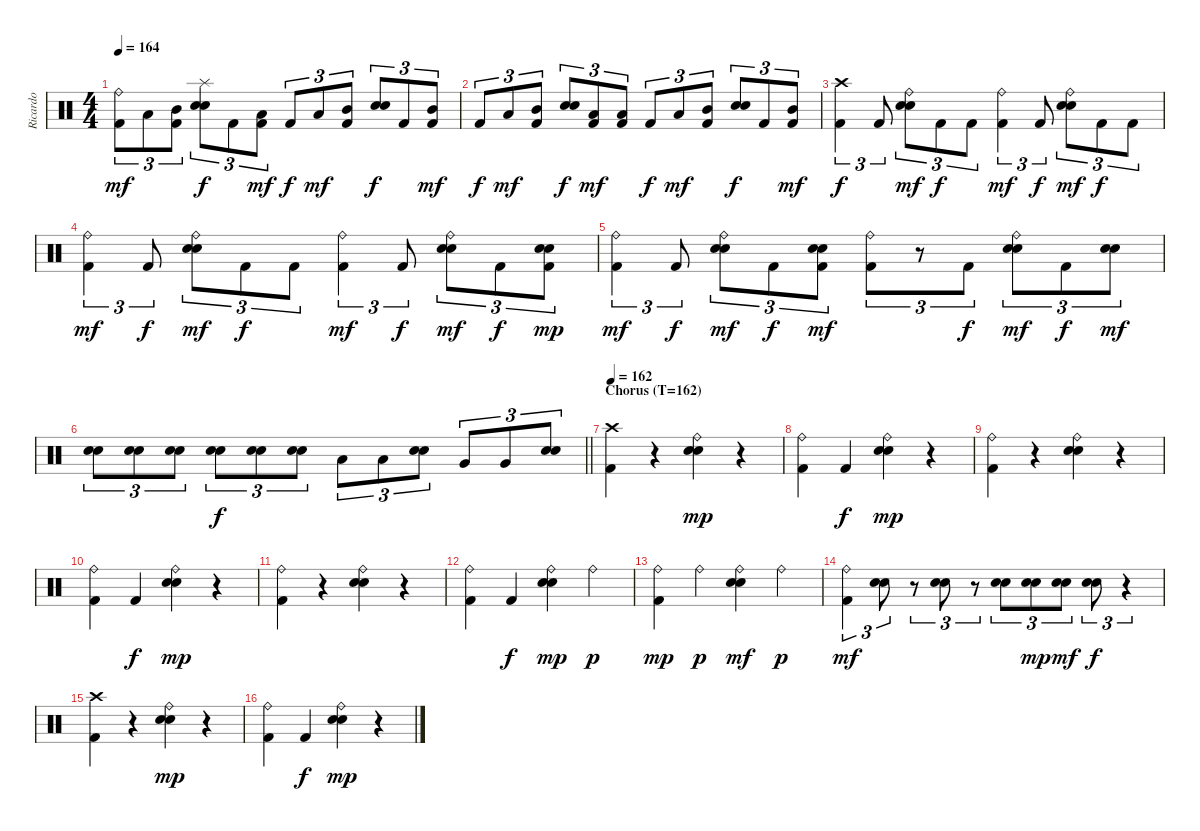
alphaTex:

\track ("Ricardo" "Ricardo") {instrument percussion}
\staff {score}
\articulation defaults
\ts (4 4)
\tempo 164
\clef neutral
\ks c
("Ride (bell)" "Kick (hit) 2").8{tu (3 2) dy mf} "Low Tom (hit)".8{tu (3 2)} ("Mid Tom (hit)" "Kick (hit) 2").8{tu (3 2)} ("Splash (hit)" "Electric Snare (hit)" "Snare (hit) 2").8{tu (3 2) dy f} "Kick (hit) 2".8{tu (3 2)} ("Low Tom (hit)" "Kick (hit) 2").8{tu (3 2) dy mf} "Kick (hit) 2".8{tu (3 2) dy f} "Low Tom (hit)".8{tu (3 2) dy mf} ("Mid Tom (hit)" "Kick (hit) 2").8{tu (3 2)} ("Electric Snare (hit)" "Snare (hit) 2").8{tu (3 2) dy f} "Kick (hit) 2".8{tu (3 2)} ("Mid Tom (hit)" "Kick (hit) 2").8{tu (3 2) dy mf} |
"Kick (hit) 2".8{tu (3 2) dy f} "Low Tom (hit)".8{tu (3 2) dy mf} ("Mid Tom (hit)" "Kick (hit) 2").8{tu (3 2)} ("Electric Snare (hit)" "Snare (hit) 2").8{tu (3 2) dy f} ("Low Tom (hit)" "Kick (hit) 2").8{tu (3 2) dy mf} ("Low Tom (hit)" "Kick (hit) 2").8{tu (3 2)} "Kick (hit) 2".8{tu (3 2) dy f} "Low Tom (hit)".8{tu (3 2) dy mf} ("Mid Tom (hit)" "Kick (hit) 2").8{tu (3 2)} ("Electric Snare (hit)" "Snare (hit) 2").8{tu (3 2) dy f} "Kick (hit) 2".8{tu (3 2)} ("Mid Tom (hit)" "Kick (hit) 2").8{tu (3 2) dy mf} |
("Crash high (hit)" "Kick (hit) 2").4{tu (3 2) dy f} "Kick (hit) 2".8{tu (3 2)} ("Ride (bell)" "Electric Snare (hit)" "Snare (hit) 2").8{tu (3 2) dy mf} "Kick (hit) 2".8{tu (3 2) dy f} "Kick (hit) 2".8{tu (3 2)} ("Ride (bell)" "Kick (hit) 2").4{tu (3 2) dy mf} "Kick (hit) 2".8{tu (3 2) dy f} ("Ride (bell)" "Electric Snare (hit)" "Snare (hit) 2").8{tu (3 2) dy mf} "Kick (hit) 2".8{tu (3 2) dy f} "Kick (hit) 2".8{tu (3 2)} |
("Ride (bell)" "Kick (hit) 2").4{tu (3 2) dy mf} "Kick (hit) 2".8{tu (3 2) dy f} ("Ride (bell)" "Electric Snare (hit)" "Snare (hit) 2").8{tu (3 2) dy mf} "Kick (hit) 2".8{tu (3 2) dy f} "Kick (hit) 2".8{tu (3 2)} ("Ride (bell)" "Kick (hit) 2").4{tu (3 2) dy mf} "Kick (hit) 2".8{tu (3 2) dy f} ("Ride (bell)" "Electric Snare (hit)" "Snare (hit) 2").8{tu (3 2) dy mf} "Kick (hit) 2".8{tu (3 2) dy f} ("Electric Snare (hit)" "Snare (hit) 2" "Kick (hit) 2").8{tu (3 2) dy mp} |
("Ride (bell)" "Kick (hit) 2").4{tu (3 2) dy mf} "Kick (hit) 2".8{tu (3 2) dy f} ("Ride (bell)" "Electric Snare (hit)" "Snare (hit) 2").8{tu (3 2) dy mf} "Kick (hit) 2".8{tu (3 2) dy f} ("Electric Snare (hit)" "Snare (hit) 2" "Kick (hit) 2").8{tu (3 2) dy mf} ("Ride (bell)" "Kick (hit) 2").8{tu (3 2)} r.8{tu (3 2)} "Kick (hit) 2".8{tu (3 2) dy f} ("Ride (bell)" "Electric Snare (hit)" "Snare (hit) 2").8{tu (3 2) dy mf} "Kick (hit) 2".8{tu (3 2) dy f} ("Electric Snare (hit)" "Snare (hit) 2").8{tu (3 2) dy mf} |
\barLineRight lightlight
("Electric Snare (hit)" "Snare (hit) 2").8{tu (3 2)} ("Electric Snare (hit)" "Snare (hit) 2").8{tu (3 2)} ("Electric Snare (hit)" "Snare (hit) 2").8{tu (3 2)} ("Electric Snare (hit)" "Snare (hit) 2").8{tu (3 2) dy f} ("Electric Snare (hit)" "Snare (hit) 2").8{tu (3 2)} ("Electric Snare (hit)" "Snare (hit) 2").8{tu (3 2)} "Low Tom (hit)".8{tu (3 2)} "Low Tom (hit)".8{tu (3 2)} ("Electric Snare (hit)" "Snare (hit) 2").8{tu (3 2)} "Very Low Tom (hit)".8{tu (3 2)} "Very Low Tom (hit)".8{tu (3 2)} ("Electric Snare (hit)" "Snare (hit) 2").8{tu (3 2)} |
\section ("" "Chorus (T=162)")
\tempo 162
("Crash high (hit)" "Kick (hit) 2").4 r.4 ("Ride (bell)" "Electric Snare (hit)" "Snare (hit) 2").4{dy mp} r.4 |
("Ride (bell)" "Kick (hit) 2").4 "Kick (hit) 2".4{dy f} ("Ride (bell)" "Electric Snare (hit)" "Snare (hit) 2").4{dy mp} r.4 |
("Ride (bell)" "Kick (hit) 2").4 r.4 ("Ride (bell)" "Electric Snare (hit)" "Snare (hit) 2").4 r.4 |
("Ride (bell)" "Kick (hit) 2").4 "Kick (hit) 2".4{dy f} ("Ride (bell)" "Electric Snare (hit)" "Snare (hit) 2").4{dy mp} r.4 |
("Ride (bell)" "Kick (hit) 2").4 r.4 ("Ride (bell)" "Electric Snare (hit)" "Snare (hit) 2").4 r.4 |
("Ride (bell)" "Kick (hit) 2").4 "Kick (hit) 2".4{dy f} ("Ride (bell)" "Electric Snare (hit)" "Snare (hit) 2").4{dy mp} "Ride (bell)".4{dy p} |
("Ride (bell)" "Kick (hit) 2").4{dy mp} "Ride (bell)".4{dy p} ("Ride (bell)" "Electric Snare (hit)" "Snare (hit) 2").4{dy mf} "Ride (bell)".4{dy p} |
("Ride (bell)" "Kick (hit) 2").4{tu (3 2) dy mf} ("Electric Snare (hit)" "Snare (hit) 2").8{tu (3 2)} r.8{tu (3 2)} ("Electric Snare (hit)" "Snare (hit) 2").8{tu (3 2)} r.8{tu (3 2)} ("Electric Snare (hit)" "Snare (hit) 2").8{tu (3 2)} ("Electric Snare (hit)" "Snare (hit) 2").8{tu (3 2) dy mp} ("Electric Snare (hit)" "Snare (hit) 2").8{tu (3 2) dy mf} ("Electric Snare (hit)" "Snare (hit) 2").8{tu (3 2) dy f} r.4{tu (3 2)} |
("Crash high (hit)" "Kick (hit) 2").4 r.4 ("Ride (bell)" "Electric Snare (hit)" "Snare (hit) 2").4{dy mp} r.4 |
("Ride (bell)" "Kick (hit) 2").4 "Kick (hit) 2".4{dy f} ("Ride (bell)" "Electric Snare (hit)" "Snare (hit) 2").4{dy mp} r.4
